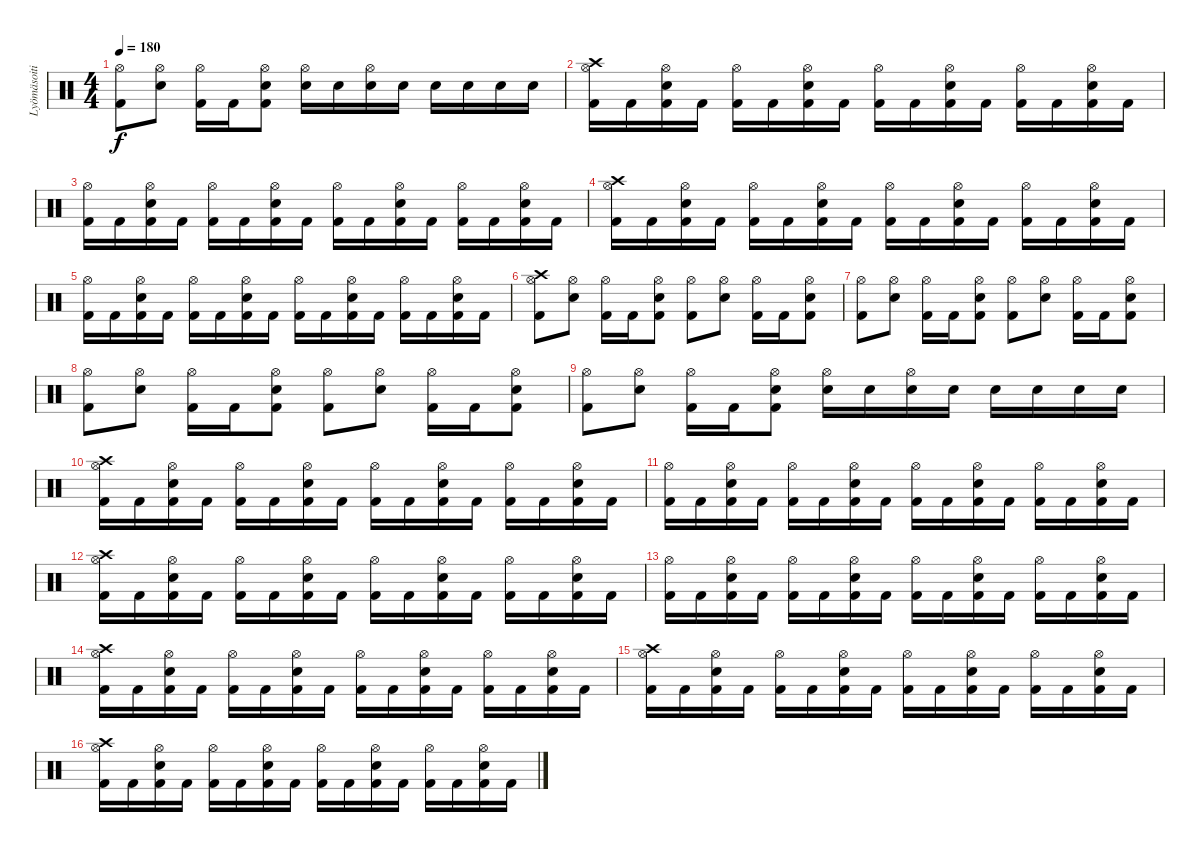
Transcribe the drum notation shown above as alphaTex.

\track ("Lyömäsoitin" "Lyömäsoiti") {instrument percussion}
\staff {score}
\articulation defaults
\ts (4 4)
\tempo 180
\clef neutral
\ks c
("Kick (hit) 2" "Hi-Hat (open)").8{dy f} ("Snare (hit) 2" "Hi-Hat (open)").8 ("Kick (hit) 2" "Hi-Hat (open)").16 "Kick (hit) 2".16 ("Kick (hit) 2" "Snare (hit) 2" "Hi-Hat (open)").8 ("Snare (hit) 2" "Hi-Hat (open)").16 "Snare (hit) 2".16 ("Snare (hit) 2" "Hi-Hat (open)").16 "Snare (hit) 2".16 "Snare (hit) 2".16 "Snare (hit) 2".16 "Snare (hit) 2".16 "Snare (hit) 2".16 |
("Kick (hit) 2" "Crash high (hit)" "Hi-Hat (open)").16 "Kick (hit) 2".16 ("Kick (hit) 2" "Snare (hit) 2" "Hi-Hat (open)").16 "Kick (hit) 2".16 ("Kick (hit) 2" "Hi-Hat (open)").16 "Kick (hit) 2".16 ("Kick (hit) 2" "Snare (hit) 2" "Hi-Hat (open)").16 "Kick (hit) 2".16 ("Kick (hit) 2" "Hi-Hat (open)").16 "Kick (hit) 2".16 ("Kick (hit) 2" "Snare (hit) 2" "Hi-Hat (open)").16 "Kick (hit) 2".16 ("Kick (hit) 2" "Hi-Hat (open)").16 "Kick (hit) 2".16 ("Kick (hit) 2" "Snare (hit) 2" "Hi-Hat (open)").16 "Kick (hit) 2".16 |
("Kick (hit) 2" "Hi-Hat (open)").16 "Kick (hit) 2".16 ("Kick (hit) 2" "Snare (hit) 2" "Hi-Hat (open)").16 "Kick (hit) 2".16 ("Kick (hit) 2" "Hi-Hat (open)").16 "Kick (hit) 2".16 ("Kick (hit) 2" "Snare (hit) 2" "Hi-Hat (open)").16 "Kick (hit) 2".16 ("Kick (hit) 2" "Hi-Hat (open)").16 "Kick (hit) 2".16 ("Kick (hit) 2" "Snare (hit) 2" "Hi-Hat (open)").16 "Kick (hit) 2".16 ("Kick (hit) 2" "Hi-Hat (open)").16 "Kick (hit) 2".16 ("Kick (hit) 2" "Snare (hit) 2" "Hi-Hat (open)").16 "Kick (hit) 2".16 |
("Kick (hit) 2" "Crash high (hit)" "Hi-Hat (open)").16 "Kick (hit) 2".16 ("Kick (hit) 2" "Snare (hit) 2" "Hi-Hat (open)").16 "Kick (hit) 2".16 ("Kick (hit) 2" "Hi-Hat (open)").16 "Kick (hit) 2".16 ("Kick (hit) 2" "Snare (hit) 2" "Hi-Hat (open)").16 "Kick (hit) 2".16 ("Kick (hit) 2" "Hi-Hat (open)").16 "Kick (hit) 2".16 ("Kick (hit) 2" "Snare (hit) 2" "Hi-Hat (open)").16 "Kick (hit) 2".16 ("Kick (hit) 2" "Hi-Hat (open)").16 "Kick (hit) 2".16 ("Kick (hit) 2" "Snare (hit) 2" "Hi-Hat (open)").16 "Kick (hit) 2".16 |
("Kick (hit) 2" "Hi-Hat (open)").16 "Kick (hit) 2".16 ("Kick (hit) 2" "Snare (hit) 2" "Hi-Hat (open)").16 "Kick (hit) 2".16 ("Kick (hit) 2" "Hi-Hat (open)").16 "Kick (hit) 2".16 ("Kick (hit) 2" "Snare (hit) 2" "Hi-Hat (open)").16 "Kick (hit) 2".16 ("Kick (hit) 2" "Hi-Hat (open)").16 "Kick (hit) 2".16 ("Kick (hit) 2" "Snare (hit) 2" "Hi-Hat (open)").16 "Kick (hit) 2".16 ("Kick (hit) 2" "Hi-Hat (open)").16 "Kick (hit) 2".16 ("Kick (hit) 2" "Snare (hit) 2" "Hi-Hat (open)").16 "Kick (hit) 2".16 |
("Kick (hit) 2" "Crash high (hit)" "Hi-Hat (open)").8 ("Snare (hit) 2" "Hi-Hat (open)").8 ("Kick (hit) 2" "Hi-Hat (open)").16 "Kick (hit) 2".16 ("Kick (hit) 2" "Snare (hit) 2" "Hi-Hat (open)").8 ("Kick (hit) 2" "Hi-Hat (open)").8 ("Snare (hit) 2" "Hi-Hat (open)").8 ("Kick (hit) 2" "Hi-Hat (open)").16 "Kick (hit) 2".16 ("Kick (hit) 2" "Snare (hit) 2" "Hi-Hat (open)").8 |
("Kick (hit) 2" "Hi-Hat (open)").8 ("Snare (hit) 2" "Hi-Hat (open)").8 ("Kick (hit) 2" "Hi-Hat (open)").16 "Kick (hit) 2".16 ("Kick (hit) 2" "Snare (hit) 2" "Hi-Hat (open)").8 ("Kick (hit) 2" "Hi-Hat (open)").8 ("Snare (hit) 2" "Hi-Hat (open)").8 ("Kick (hit) 2" "Hi-Hat (open)").16 "Kick (hit) 2".16 ("Kick (hit) 2" "Snare (hit) 2" "Hi-Hat (open)").8 |
("Kick (hit) 2" "Hi-Hat (open)").8 ("Snare (hit) 2" "Hi-Hat (open)").8 ("Kick (hit) 2" "Hi-Hat (open)").16 "Kick (hit) 2".16 ("Kick (hit) 2" "Snare (hit) 2" "Hi-Hat (open)").8 ("Kick (hit) 2" "Hi-Hat (open)").8 ("Snare (hit) 2" "Hi-Hat (open)").8 ("Kick (hit) 2" "Hi-Hat (open)").16 "Kick (hit) 2".16 ("Kick (hit) 2" "Snare (hit) 2" "Hi-Hat (open)").8 |
("Kick (hit) 2" "Hi-Hat (open)").8 ("Snare (hit) 2" "Hi-Hat (open)").8 ("Kick (hit) 2" "Hi-Hat (open)").16 "Kick (hit) 2".16 ("Kick (hit) 2" "Snare (hit) 2" "Hi-Hat (open)").8 ("Snare (hit) 2" "Hi-Hat (open)").16 "Snare (hit) 2".16 ("Snare (hit) 2" "Hi-Hat (open)").16 "Snare (hit) 2".16 "Snare (hit) 2".16 "Snare (hit) 2".16 "Snare (hit) 2".16 "Snare (hit) 2".16 |
("Kick (hit) 2" "Crash high (hit)" "Hi-Hat (open)").16 "Kick (hit) 2".16 ("Kick (hit) 2" "Snare (hit) 2" "Hi-Hat (open)").16 "Kick (hit) 2".16 ("Kick (hit) 2" "Hi-Hat (open)").16 "Kick (hit) 2".16 ("Kick (hit) 2" "Snare (hit) 2" "Hi-Hat (open)").16 "Kick (hit) 2".16 ("Kick (hit) 2" "Hi-Hat (open)").16 "Kick (hit) 2".16 ("Kick (hit) 2" "Snare (hit) 2" "Hi-Hat (open)").16 "Kick (hit) 2".16 ("Kick (hit) 2" "Hi-Hat (open)").16 "Kick (hit) 2".16 ("Kick (hit) 2" "Snare (hit) 2" "Hi-Hat (open)").16 "Kick (hit) 2".16 |
("Kick (hit) 2" "Hi-Hat (open)").16 "Kick (hit) 2".16 ("Kick (hit) 2" "Snare (hit) 2" "Hi-Hat (open)").16 "Kick (hit) 2".16 ("Kick (hit) 2" "Hi-Hat (open)").16 "Kick (hit) 2".16 ("Kick (hit) 2" "Snare (hit) 2" "Hi-Hat (open)").16 "Kick (hit) 2".16 ("Kick (hit) 2" "Hi-Hat (open)").16 "Kick (hit) 2".16 ("Kick (hit) 2" "Snare (hit) 2" "Hi-Hat (open)").16 "Kick (hit) 2".16 ("Kick (hit) 2" "Hi-Hat (open)").16 "Kick (hit) 2".16 ("Kick (hit) 2" "Snare (hit) 2" "Hi-Hat (open)").16 "Kick (hit) 2".16 |
("Kick (hit) 2" "Crash high (hit)" "Hi-Hat (open)").16 "Kick (hit) 2".16 ("Kick (hit) 2" "Snare (hit) 2" "Hi-Hat (open)").16 "Kick (hit) 2".16 ("Kick (hit) 2" "Hi-Hat (open)").16 "Kick (hit) 2".16 ("Kick (hit) 2" "Snare (hit) 2" "Hi-Hat (open)").16 "Kick (hit) 2".16 ("Kick (hit) 2" "Hi-Hat (open)").16 "Kick (hit) 2".16 ("Kick (hit) 2" "Snare (hit) 2" "Hi-Hat (open)").16 "Kick (hit) 2".16 ("Kick (hit) 2" "Hi-Hat (open)").16 "Kick (hit) 2".16 ("Kick (hit) 2" "Snare (hit) 2" "Hi-Hat (open)").16 "Kick (hit) 2".16 |
("Kick (hit) 2" "Hi-Hat (open)").16 "Kick (hit) 2".16 ("Kick (hit) 2" "Snare (hit) 2" "Hi-Hat (open)").16 "Kick (hit) 2".16 ("Kick (hit) 2" "Hi-Hat (open)").16 "Kick (hit) 2".16 ("Kick (hit) 2" "Snare (hit) 2" "Hi-Hat (open)").16 "Kick (hit) 2".16 ("Kick (hit) 2" "Hi-Hat (open)").16 "Kick (hit) 2".16 ("Kick (hit) 2" "Snare (hit) 2" "Hi-Hat (open)").16 "Kick (hit) 2".16 ("Kick (hit) 2" "Hi-Hat (open)").16 "Kick (hit) 2".16 ("Kick (hit) 2" "Snare (hit) 2" "Hi-Hat (open)").16 "Kick (hit) 2".16 |
("Kick (hit) 2" "Crash high (hit)" "Hi-Hat (open)").16 "Kick (hit) 2".16 ("Kick (hit) 2" "Snare (hit) 2" "Hi-Hat (open)").16 "Kick (hit) 2".16 ("Kick (hit) 2" "Hi-Hat (open)").16 "Kick (hit) 2".16 ("Kick (hit) 2" "Snare (hit) 2" "Hi-Hat (open)").16 "Kick (hit) 2".16 ("Kick (hit) 2" "Hi-Hat (open)").16 "Kick (hit) 2".16 ("Kick (hit) 2" "Snare (hit) 2" "Hi-Hat (open)").16 "Kick (hit) 2".16 ("Kick (hit) 2" "Hi-Hat (open)").16 "Kick (hit) 2".16 ("Kick (hit) 2" "Snare (hit) 2" "Hi-Hat (open)").16 "Kick (hit) 2".16 |
("Kick (hit) 2" "Crash high (hit)" "Hi-Hat (open)").16 "Kick (hit) 2".16 ("Kick (hit) 2" "Snare (hit) 2" "Hi-Hat (open)").16 "Kick (hit) 2".16 ("Kick (hit) 2" "Hi-Hat (open)").16 "Kick (hit) 2".16 ("Kick (hit) 2" "Snare (hit) 2" "Hi-Hat (open)").16 "Kick (hit) 2".16 ("Kick (hit) 2" "Hi-Hat (open)").16 "Kick (hit) 2".16 ("Kick (hit) 2" "Snare (hit) 2" "Hi-Hat (open)").16 "Kick (hit) 2".16 ("Kick (hit) 2" "Hi-Hat (open)").16 "Kick (hit) 2".16 ("Kick (hit) 2" "Snare (hit) 2" "Hi-Hat (open)").16 "Kick (hit) 2".16 |
("Kick (hit) 2" "Crash high (hit)" "Hi-Hat (open)").16 "Kick (hit) 2".16 ("Kick (hit) 2" "Snare (hit) 2" "Hi-Hat (open)").16 "Kick (hit) 2".16 ("Kick (hit) 2" "Hi-Hat (open)").16 "Kick (hit) 2".16 ("Kick (hit) 2" "Snare (hit) 2" "Hi-Hat (open)").16 "Kick (hit) 2".16 ("Kick (hit) 2" "Hi-Hat (open)").16 "Kick (hit) 2".16 ("Kick (hit) 2" "Snare (hit) 2" "Hi-Hat (open)").16 "Kick (hit) 2".16 ("Kick (hit) 2" "Hi-Hat (open)").16 "Kick (hit) 2".16 ("Kick (hit) 2" "Snare (hit) 2" "Hi-Hat (open)").16 "Kick (hit) 2".16
